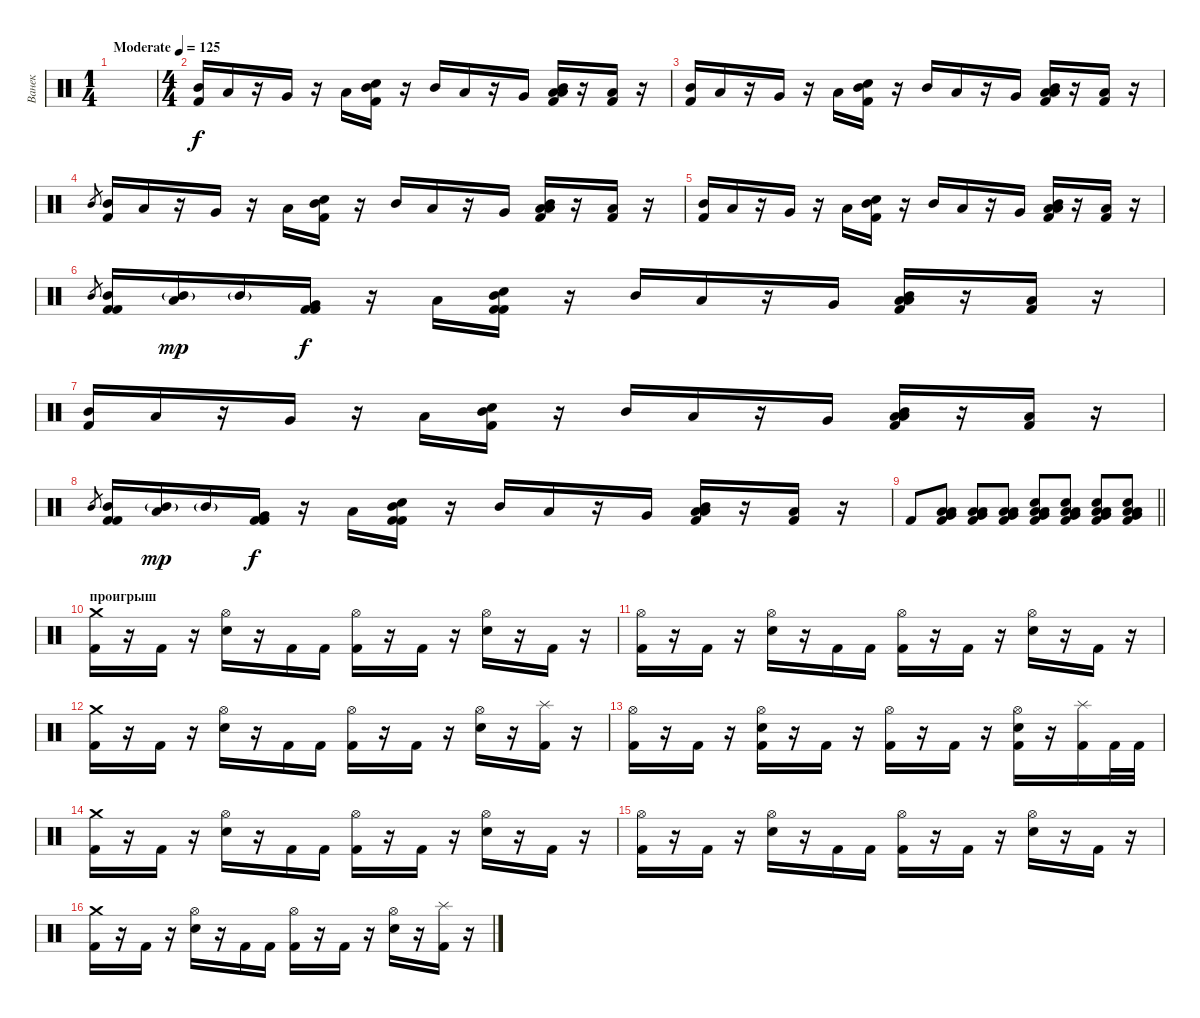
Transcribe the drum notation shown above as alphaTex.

\track ("Ванек" "Ванек") {instrument percussion}
\staff {score}
\articulation defaults
\ts (1 4)
\tempo (125 "Moderate")
\clef neutral
\ks c
|
\ts (4 4)
("Mid Tom (hit)" "Kick (hit) 2").16 "Low Tom (hit)".16 r.16 "Very Low Tom (hit)".16 r.16 "Low Floor Tom (hit)".16 ("Mid Tom (hit)" "Snare (hit) 2" "Kick (hit) 2").16 r.16 "Mid Tom (hit)".16 "Low Tom (hit)".16 r.16 "Very Low Tom (hit)".16 ("Low Tom (hit)" "Mid Tom (hit)" "Low Floor Tom (hit)" "Kick (hit) 2").16 r.16 ("Low Tom (hit)" "Kick (hit) 2").16 r.16 |
("Mid Tom (hit)" "Kick (hit) 2").16 "Low Tom (hit)".16 r.16 "Very Low Tom (hit)".16 r.16 "Low Floor Tom (hit)".16 ("Mid Tom (hit)" "Snare (hit) 2" "Kick (hit) 2").16 r.16 "Mid Tom (hit)".16 "Low Tom (hit)".16 r.16 "Very Low Tom (hit)".16 ("Low Tom (hit)" "Mid Tom (hit)" "Low Floor Tom (hit)" "Kick (hit) 2").16 r.16 ("Low Tom (hit)" "Kick (hit) 2").16 r.16 |
"Mid Tom (hit)".8{gr} ("Mid Tom (hit)" "Kick (hit) 2").16 "Low Tom (hit)".16 r.16 "Very Low Tom (hit)".16 r.16 "Low Floor Tom (hit)".16 ("Mid Tom (hit)" "Snare (hit) 2" "Kick (hit) 2").16 r.16 "Mid Tom (hit)".16 "Low Tom (hit)".16 r.16 "Very Low Tom (hit)".16 ("Low Tom (hit)" "Mid Tom (hit)" "Low Floor Tom (hit)" "Kick (hit) 2").16 r.16 ("Low Tom (hit)" "Kick (hit) 2").16 r.16 |
("Mid Tom (hit)" "Kick (hit) 2").16 "Low Tom (hit)".16 r.16 "Very Low Tom (hit)".16 r.16 "Low Floor Tom (hit)".16 ("Mid Tom (hit)" "Snare (hit) 2" "Kick (hit) 2").16 r.16 "Mid Tom (hit)".16 "Low Tom (hit)".16 r.16 "Very Low Tom (hit)".16 ("Low Tom (hit)" "Mid Tom (hit)" "Low Floor Tom (hit)" "Kick (hit) 2").16 r.16 ("Low Tom (hit)" "Kick (hit) 2").16 r.16 |
"Mid Tom (hit)".8{gr} ("Mid Tom (hit)" "Kick (hit) 2" "Kick (hit) 2").16 ("Low Tom (hit)" "Mid Tom (hit)"{g}).16{dy mp} "Mid Tom (hit)"{g}.16 ("Very Low Tom (hit)" "Kick (hit) 2" "Kick (hit) 2").16{dy f} r.16 "Low Floor Tom (hit)".16 ("Mid Tom (hit)" "Snare (hit) 2" "Kick (hit) 2" "Kick (hit) 2").16 r.16 "Mid Tom (hit)".16 "Low Tom (hit)".16 r.16 "Very Low Tom (hit)".16 ("Low Tom (hit)" "Mid Tom (hit)" "Low Floor Tom (hit)" "Kick (hit) 2").16 r.16 ("Low Tom (hit)" "Kick (hit) 2").16 r.16 |
("Mid Tom (hit)" "Kick (hit) 2").16 "Low Tom (hit)".16 r.16 "Very Low Tom (hit)".16 r.16 "Low Floor Tom (hit)".16 ("Mid Tom (hit)" "Snare (hit) 2" "Kick (hit) 2").16 r.16 "Mid Tom (hit)".16 "Low Tom (hit)".16 r.16 "Very Low Tom (hit)".16 ("Low Tom (hit)" "Mid Tom (hit)" "Low Floor Tom (hit)" "Kick (hit) 2").16 r.16 ("Low Tom (hit)" "Kick (hit) 2").16 r.16 |
"Mid Tom (hit)".8{gr} ("Mid Tom (hit)" "Kick (hit) 2" "Kick (hit) 2").16 ("Low Tom (hit)" "Mid Tom (hit)"{g}).16{dy mp} "Mid Tom (hit)"{g}.16 ("Very Low Tom (hit)" "Kick (hit) 2" "Kick (hit) 2").16{dy f} r.16 "Low Floor Tom (hit)".16 ("Mid Tom (hit)" "Snare (hit) 2" "Kick (hit) 2" "Kick (hit) 2").16 r.16 "Mid Tom (hit)".16 "Low Tom (hit)".16 r.16 "Very Low Tom (hit)".16 ("Low Tom (hit)" "Mid Tom (hit)" "Low Floor Tom (hit)" "Kick (hit) 2").16 r.16 ("Low Tom (hit)" "Kick (hit) 2").16 r.16 |
\barLineRight lightlight "Kick (hit) 2".8{volume 10}
("Very Low Tom (hit)" "Low Tom (hit)" "Low Floor Tom (hit)" "Kick (hit) 2").8 ("Very Low Tom (hit)" "Low Tom (hit)" "Low Floor Tom (hit)" "Kick (hit) 2").8 ("Very Low Tom (hit)" "Low Tom (hit)" "Low Floor Tom (hit)" "Kick (hit) 2").8 ("Snare (hit) 2" "Very Low Tom (hit)" "Low Tom (hit)" "Low Floor Tom (hit)" "Kick (hit) 2").8 ("Snare (hit) 2" "Very Low Tom (hit)" "Low Tom (hit)" "Low Floor Tom (hit)" "Kick (hit) 2").8 ("Snare (hit) 2" "Very Low Tom (hit)" "Low Tom (hit)" "Low Floor Tom (hit)" "Kick (hit) 2").8 ("Snare (hit) 2" "Very Low Tom (hit)" "Low Tom (hit)" "Low Floor Tom (hit)" "Kick (hit) 2").8 |
\section ("" "проигрыш")
("Crash medium (hit)" "Kick (hit) 2").16 r.16 "Kick (hit) 2".16 r.16 ("Hi-Hat (open)" "Snare (hit) 2").16 r.16 "Kick (hit) 2".16 "Kick (hit) 2".16 ("Hi-Hat (open)" "Kick (hit) 2").16 r.16 "Kick (hit) 2".16 r.16 ("Hi-Hat (open)" "Snare (hit) 2").16 r.16 "Kick (hit) 2".16 r.16 |
("Hi-Hat (open)" "Kick (hit) 2").16 r.16 "Kick (hit) 2".16 r.16 ("Hi-Hat (open)" "Snare (hit) 2").16 r.16 "Kick (hit) 2".16 "Kick (hit) 2".16 ("Hi-Hat (open)" "Kick (hit) 2").16 r.16 "Kick (hit) 2".16 r.16 ("Hi-Hat (open)" "Snare (hit) 2").16 r.16 "Kick (hit) 2".16 r.16 |
("Crash medium (hit)" "Kick (hit) 2").16 r.16 "Kick (hit) 2".16 r.16 ("Hi-Hat (open)" "Snare (hit) 2").16 r.16 "Kick (hit) 2".16 "Kick (hit) 2".16 ("Hi-Hat (open)" "Kick (hit) 2").16 r.16 "Kick (hit) 2".16 r.16 ("Hi-Hat (open)" "Snare (hit) 2").16 r.16 ("Splash (hit)" "Kick (hit) 2").16 r.16 |
("Hi-Hat (open)" "Kick (hit) 2").16 r.16 "Kick (hit) 2".16 r.16 ("Hi-Hat (open)" "Snare (hit) 2" "Kick (hit) 2").16 r.16 "Kick (hit) 2".16 r.16 ("Hi-Hat (open)" "Kick (hit) 2").16 r.16 "Kick (hit) 2".16 r.16 ("Hi-Hat (open)" "Snare (hit) 2" "Kick (hit) 2").16 r.16 ("Splash (hit)" "Kick (hit) 2").16 "Kick (hit) 2".32 "Kick (hit) 2".32 |
("Crash medium (hit)" "Kick (hit) 2").16 r.16 "Kick (hit) 2".16 r.16 ("Hi-Hat (open)" "Snare (hit) 2").16 r.16 "Kick (hit) 2".16 "Kick (hit) 2".16 ("Hi-Hat (open)" "Kick (hit) 2").16 r.16 "Kick (hit) 2".16 r.16 ("Hi-Hat (open)" "Snare (hit) 2").16 r.16 "Kick (hit) 2".16 r.16 |
("Hi-Hat (open)" "Kick (hit) 2").16 r.16 "Kick (hit) 2".16 r.16 ("Hi-Hat (open)" "Snare (hit) 2").16 r.16 "Kick (hit) 2".16 "Kick (hit) 2".16 ("Hi-Hat (open)" "Kick (hit) 2").16 r.16 "Kick (hit) 2".16 r.16 ("Hi-Hat (open)" "Snare (hit) 2").16 r.16 "Kick (hit) 2".16 r.16 |
("Crash medium (hit)" "Kick (hit) 2").16 r.16 "Kick (hit) 2".16 r.16 ("Hi-Hat (open)" "Snare (hit) 2").16 r.16 "Kick (hit) 2".16 "Kick (hit) 2".16 ("Hi-Hat (open)" "Kick (hit) 2").16 r.16 "Kick (hit) 2".16 r.16 ("Hi-Hat (open)" "Snare (hit) 2").16 r.16 ("Splash (hit)" "Kick (hit) 2").16 r.16
